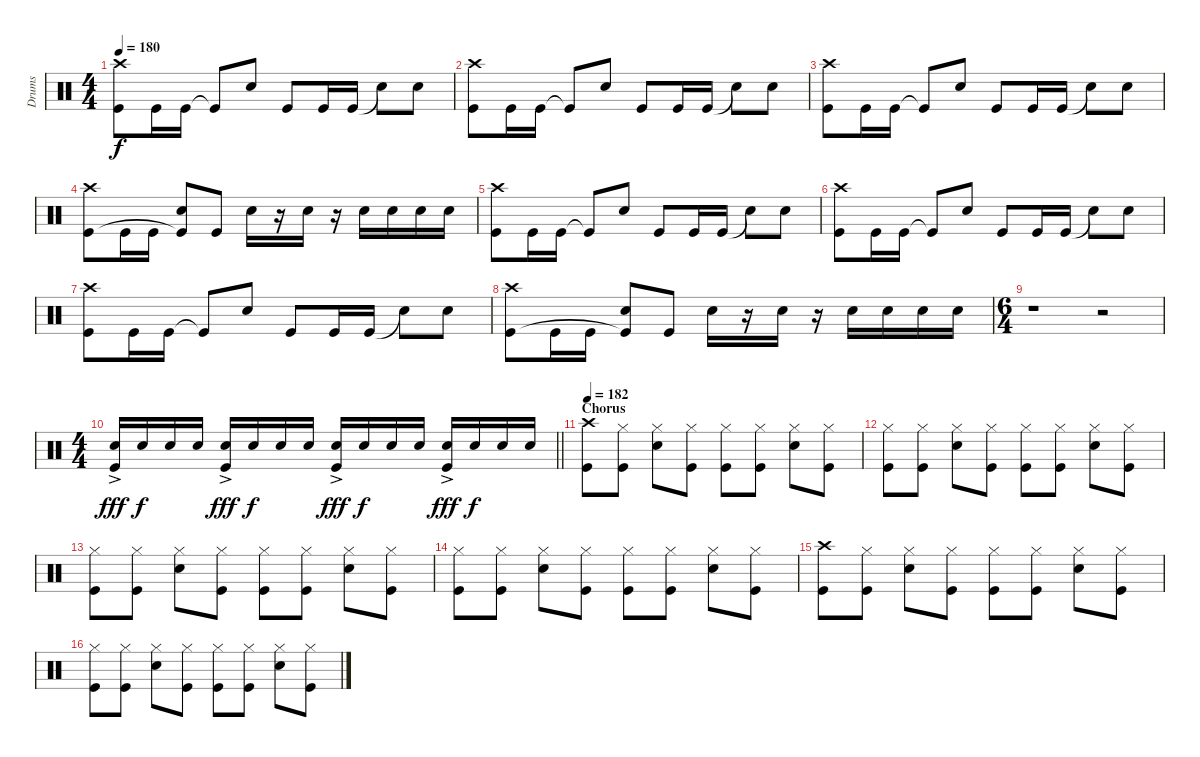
\track ("Drums" "Drums") {instrument percussion}
\staff {score}
\articulation defaults
\ts (4 4)
\tempo 180
\clef neutral
\ks c
("Crash high (hit)" "Kick (hit)").8{dy f} "Kick (hit)".16 "Kick (hit)".16 "Kick (hit)"{t}.8 "Snare (hit) 2".8 "Kick (hit)".8 "Kick (hit)".16 "Kick (hit)".16 "Snare (hit)"{t}.8 "Snare (hit) 2".8 |
("Crash high (hit)" "Kick (hit)").8 "Kick (hit)".16 "Kick (hit)".16 "Kick (hit)"{t}.8 "Snare (hit) 2".8 "Kick (hit)".8 "Kick (hit)".16 "Kick (hit)".16 "Snare (hit)"{t}.8 "Snare (hit) 2".8 |
("Crash high (hit)" "Kick (hit)").8 "Kick (hit)".16 "Kick (hit)".16 "Kick (hit)"{t}.8 "Snare (hit) 2".8 "Kick (hit)".8 "Kick (hit)".16 "Kick (hit)".16 "Snare (hit)"{t}.8 "Snare (hit) 2".8 |
("Crash high (hit)" "Kick (hit)").8 "Kick (hit)".16 "Kick (hit)".16 ("Snare (hit) 2" "Kick (hit)"{t}).8 "Kick (hit)".8 "Snare (hit) 2".16 r.16 "Snare (hit) 2".16 r.16 "Snare (hit) 2".16 "Snare (hit) 2".16 "Snare (hit) 2".16 "Snare (hit) 2".16 |
("Crash high (hit)" "Kick (hit)").8 "Kick (hit)".16 "Kick (hit)".16 "Kick (hit)"{t}.8 "Snare (hit) 2".8 "Kick (hit)".8 "Kick (hit)".16 "Kick (hit)".16 "Snare (hit)"{t}.8 "Snare (hit) 2".8 |
("Crash high (hit)" "Kick (hit)").8 "Kick (hit)".16 "Kick (hit)".16 "Kick (hit)"{t}.8 "Snare (hit) 2".8 "Kick (hit)".8 "Kick (hit)".16 "Kick (hit)".16 "Snare (hit)"{t}.8 "Snare (hit) 2".8 |
("Crash high (hit)" "Kick (hit)").8 "Kick (hit)".16 "Kick (hit)".16 "Kick (hit)"{t}.8 "Snare (hit) 2".8 "Kick (hit)".8 "Kick (hit)".16 "Kick (hit)".16 "Snare (hit)"{t}.8 "Snare (hit) 2".8 |
("Crash high (hit)" "Kick (hit)").8 "Kick (hit)".16 "Kick (hit)".16 ("Snare (hit) 2" "Kick (hit)"{t}).8 "Kick (hit)".8 "Snare (hit) 2".16 r.16 "Snare (hit) 2".16 r.16 "Snare (hit) 2".16 "Snare (hit) 2".16 "Snare (hit) 2".16 "Snare (hit) 2".16 |
\ts (6 4)
r.1 r.2 |
\ts (4 4)
\barLineRight lightlight
("Snare (hit) 2"{ac} "Kick (hit)").16{dy fff} "Snare (hit) 2".16{dy f} "Snare (hit) 2".16 "Snare (hit) 2".16 ("Snare (hit) 2"{ac} "Kick (hit)").16{dy fff} "Snare (hit) 2".16{dy f} "Snare (hit) 2".16 "Snare (hit) 2".16 ("Snare (hit) 2"{ac} "Kick (hit)").16{dy fff} "Snare (hit) 2".16{dy f} "Snare (hit) 2".16 "Snare (hit) 2".16 ("Snare (hit) 2"{ac} "Kick (hit)").16{dy fff} "Snare (hit) 2".16{dy f} "Snare (hit) 2".16 "Snare (hit) 2".16 |
\section ("" "Chorus")
\tempo 182
("Crash high (hit)" "Kick (hit)").8 ("Hi-Hat (closed)" "Kick (hit)").8 ("Hi-Hat (closed)" "Snare (hit) 2").8 ("Hi-Hat (closed)" "Kick (hit)").8 ("Hi-Hat (closed)" "Kick (hit)").8 ("Hi-Hat (closed)" "Kick (hit)").8 ("Hi-Hat (closed)" "Snare (hit) 2").8 ("Hi-Hat (closed)" "Kick (hit)").8 |
("Hi-Hat (closed)" "Kick (hit)").8 ("Hi-Hat (closed)" "Kick (hit)").8 ("Hi-Hat (closed)" "Snare (hit) 2").8 ("Hi-Hat (closed)" "Kick (hit)").8 ("Hi-Hat (closed)" "Kick (hit)").8 ("Hi-Hat (closed)" "Kick (hit)").8 ("Hi-Hat (closed)" "Snare (hit) 2").8 ("Hi-Hat (closed)" "Kick (hit)").8 |
("Hi-Hat (closed)" "Kick (hit)").8 ("Hi-Hat (closed)" "Kick (hit)").8 ("Hi-Hat (closed)" "Snare (hit) 2").8 ("Hi-Hat (closed)" "Kick (hit)").8 ("Hi-Hat (closed)" "Kick (hit)").8 ("Hi-Hat (closed)" "Kick (hit)").8 ("Hi-Hat (closed)" "Snare (hit) 2").8 ("Hi-Hat (closed)" "Kick (hit)").8 |
("Hi-Hat (closed)" "Kick (hit)").8 ("Hi-Hat (closed)" "Kick (hit)").8 ("Hi-Hat (closed)" "Snare (hit) 2").8 ("Hi-Hat (closed)" "Kick (hit)").8 ("Hi-Hat (closed)" "Kick (hit)").8 ("Hi-Hat (closed)" "Kick (hit)").8 ("Hi-Hat (closed)" "Snare (hit) 2").8 ("Hi-Hat (closed)" "Kick (hit)").8 |
("Crash high (hit)" "Kick (hit)").8 ("Hi-Hat (closed)" "Kick (hit)").8 ("Hi-Hat (closed)" "Snare (hit) 2").8 ("Hi-Hat (closed)" "Kick (hit)").8 ("Hi-Hat (closed)" "Kick (hit)").8 ("Hi-Hat (closed)" "Kick (hit)").8 ("Hi-Hat (closed)" "Snare (hit) 2").8 ("Hi-Hat (closed)" "Kick (hit)").8 |
("Hi-Hat (closed)" "Kick (hit)").8 ("Hi-Hat (closed)" "Kick (hit)").8 ("Hi-Hat (closed)" "Snare (hit) 2").8 ("Hi-Hat (closed)" "Kick (hit)").8 ("Hi-Hat (closed)" "Kick (hit)").8 ("Hi-Hat (closed)" "Kick (hit)").8 ("Hi-Hat (closed)" "Snare (hit) 2").8 ("Hi-Hat (closed)" "Kick (hit)").8
